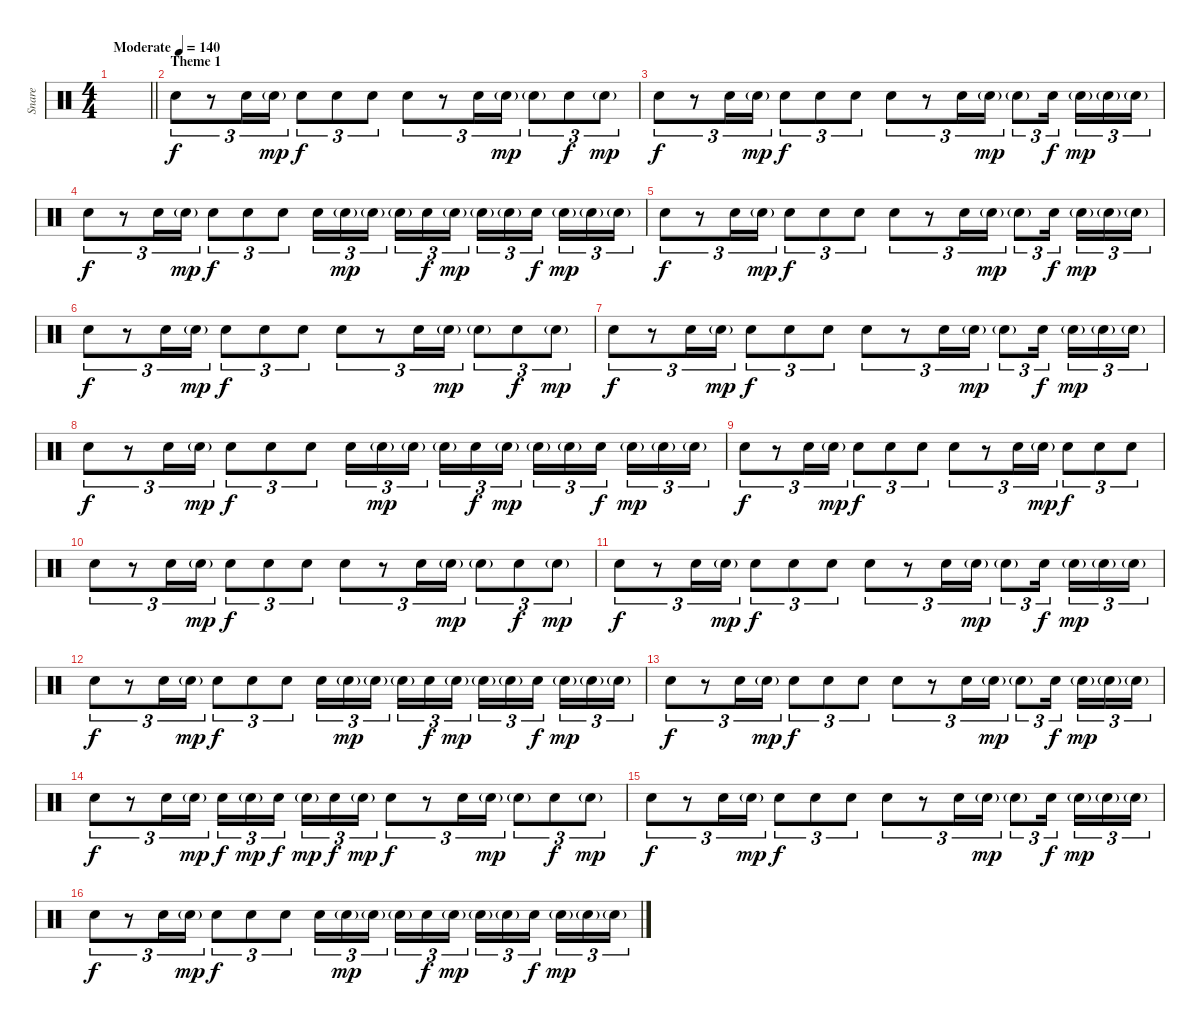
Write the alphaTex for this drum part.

\track ("Snare" "Snare") {instrument percussion}
\staff {score}
\articulation defaults
\ts (4 4)
\tempo (140 "Moderate")
\clef neutral
\barLineRight lightlight
\ks c
|
\section ("" "Theme 1")
"Electric Snare (hit)".8{tu (3 2)} r.8{tu (3 2)} "Electric Snare (hit)".16{tu (3 2)} "Electric Snare (hit)"{g}.16{tu (3 2) dy mp} "Electric Snare (hit)".8{tu (3 2) dy f} "Electric Snare (hit)".8{tu (3 2)} "Electric Snare (hit)".8{tu (3 2)} "Electric Snare (hit)".8{tu (3 2)} r.8{tu (3 2)} "Electric Snare (hit)".16{tu (3 2)} "Electric Snare (hit)"{g}.16{tu (3 2) dy mp} "Electric Snare (hit)"{g}.8{tu (3 2)} "Electric Snare (hit)".8{tu (3 2) dy f} "Electric Snare (hit)"{g}.8{tu (3 2) dy mp} |
"Electric Snare (hit)".8{tu (3 2) dy f} r.8{tu (3 2)} "Electric Snare (hit)".16{tu (3 2)} "Electric Snare (hit)"{g}.16{tu (3 2) dy mp} "Electric Snare (hit)".8{tu (3 2) dy f} "Electric Snare (hit)".8{tu (3 2)} "Electric Snare (hit)".8{tu (3 2)} "Electric Snare (hit)".8{tu (3 2)} r.8{tu (3 2)} "Electric Snare (hit)".16{tu (3 2)} "Electric Snare (hit)"{g}.16{tu (3 2) dy mp} "Electric Snare (hit)"{g}.8{tu (3 2)} "Electric Snare (hit)".16{tu (3 2) dy f beam splitsecondary} "Electric Snare (hit)"{g}.16{tu (3 2) dy mp} "Electric Snare (hit)"{g}.16{tu (3 2)} "Electric Snare (hit)"{g}.16{tu (3 2)} |
"Electric Snare (hit)".8{tu (3 2) dy f} r.8{tu (3 2)} "Electric Snare (hit)".16{tu (3 2)} "Electric Snare (hit)"{g}.16{tu (3 2) dy mp} "Electric Snare (hit)".8{tu (3 2) dy f} "Electric Snare (hit)".8{tu (3 2)} "Electric Snare (hit)".8{tu (3 2)} "Electric Snare (hit)".16{tu (3 2)} "Electric Snare (hit)"{g}.16{tu (3 2) dy mp} "Electric Snare (hit)"{g}.16{tu (3 2) beam splitsecondary} "Electric Snare (hit)"{g}.16{tu (3 2)} "Electric Snare (hit)".16{tu (3 2) dy f} "Electric Snare (hit)"{g}.16{tu (3 2) dy mp} "Electric Snare (hit)"{g}.16{tu (3 2)} "Electric Snare (hit)"{g}.16{tu (3 2)} "Electric Snare (hit)".16{tu (3 2) dy f beam splitsecondary} "Electric Snare (hit)"{g}.16{tu (3 2) dy mp} "Electric Snare (hit)"{g}.16{tu (3 2)} "Electric Snare (hit)"{g}.16{tu (3 2)} |
"Electric Snare (hit)".8{tu (3 2) dy f} r.8{tu (3 2)} "Electric Snare (hit)".16{tu (3 2)} "Electric Snare (hit)"{g}.16{tu (3 2) dy mp} "Electric Snare (hit)".8{tu (3 2) dy f} "Electric Snare (hit)".8{tu (3 2)} "Electric Snare (hit)".8{tu (3 2)} "Electric Snare (hit)".8{tu (3 2)} r.8{tu (3 2)} "Electric Snare (hit)".16{tu (3 2)} "Electric Snare (hit)"{g}.16{tu (3 2) dy mp} "Electric Snare (hit)"{g}.8{tu (3 2)} "Electric Snare (hit)".16{tu (3 2) dy f beam splitsecondary} "Electric Snare (hit)"{g}.16{tu (3 2) dy mp} "Electric Snare (hit)"{g}.16{tu (3 2)} "Electric Snare (hit)"{g}.16{tu (3 2)} |
"Electric Snare (hit)".8{tu (3 2) dy f} r.8{tu (3 2)} "Electric Snare (hit)".16{tu (3 2)} "Electric Snare (hit)"{g}.16{tu (3 2) dy mp} "Electric Snare (hit)".8{tu (3 2) dy f} "Electric Snare (hit)".8{tu (3 2)} "Electric Snare (hit)".8{tu (3 2)} "Electric Snare (hit)".8{tu (3 2)} r.8{tu (3 2)} "Electric Snare (hit)".16{tu (3 2)} "Electric Snare (hit)"{g}.16{tu (3 2) dy mp} "Electric Snare (hit)"{g}.8{tu (3 2)} "Electric Snare (hit)".8{tu (3 2) dy f} "Electric Snare (hit)"{g}.8{tu (3 2) dy mp} |
"Electric Snare (hit)".8{tu (3 2) dy f} r.8{tu (3 2)} "Electric Snare (hit)".16{tu (3 2)} "Electric Snare (hit)"{g}.16{tu (3 2) dy mp} "Electric Snare (hit)".8{tu (3 2) dy f} "Electric Snare (hit)".8{tu (3 2)} "Electric Snare (hit)".8{tu (3 2)} "Electric Snare (hit)".8{tu (3 2)} r.8{tu (3 2)} "Electric Snare (hit)".16{tu (3 2)} "Electric Snare (hit)"{g}.16{tu (3 2) dy mp} "Electric Snare (hit)"{g}.8{tu (3 2)} "Electric Snare (hit)".16{tu (3 2) dy f beam splitsecondary} "Electric Snare (hit)"{g}.16{tu (3 2) dy mp} "Electric Snare (hit)"{g}.16{tu (3 2)} "Electric Snare (hit)"{g}.16{tu (3 2)} |
"Electric Snare (hit)".8{tu (3 2) dy f} r.8{tu (3 2)} "Electric Snare (hit)".16{tu (3 2)} "Electric Snare (hit)"{g}.16{tu (3 2) dy mp} "Electric Snare (hit)".8{tu (3 2) dy f} "Electric Snare (hit)".8{tu (3 2)} "Electric Snare (hit)".8{tu (3 2)} "Electric Snare (hit)".16{tu (3 2)} "Electric Snare (hit)"{g}.16{tu (3 2) dy mp} "Electric Snare (hit)"{g}.16{tu (3 2) beam splitsecondary} "Electric Snare (hit)"{g}.16{tu (3 2)} "Electric Snare (hit)".16{tu (3 2) dy f} "Electric Snare (hit)"{g}.16{tu (3 2) dy mp} "Electric Snare (hit)"{g}.16{tu (3 2)} "Electric Snare (hit)"{g}.16{tu (3 2)} "Electric Snare (hit)".16{tu (3 2) dy f beam splitsecondary} "Electric Snare (hit)"{g}.16{tu (3 2) dy mp} "Electric Snare (hit)"{g}.16{tu (3 2)} "Electric Snare (hit)"{g}.16{tu (3 2)} |
"Electric Snare (hit)".8{tu (3 2) dy f} r.8{tu (3 2)} "Electric Snare (hit)".16{tu (3 2)} "Electric Snare (hit)"{g}.16{tu (3 2) dy mp} "Electric Snare (hit)".8{tu (3 2) dy f} "Electric Snare (hit)".8{tu (3 2)} "Electric Snare (hit)".8{tu (3 2)} "Electric Snare (hit)".8{tu (3 2)} r.8{tu (3 2)} "Electric Snare (hit)".16{tu (3 2)} "Electric Snare (hit)"{g}.16{tu (3 2) dy mp} "Electric Snare (hit)".8{tu (3 2) dy f} "Electric Snare (hit)".8{tu (3 2)} "Electric Snare (hit)".8{tu (3 2)} |
"Electric Snare (hit)".8{tu (3 2)} r.8{tu (3 2)} "Electric Snare (hit)".16{tu (3 2)} "Electric Snare (hit)"{g}.16{tu (3 2) dy mp} "Electric Snare (hit)".8{tu (3 2) dy f} "Electric Snare (hit)".8{tu (3 2)} "Electric Snare (hit)".8{tu (3 2)} "Electric Snare (hit)".8{tu (3 2)} r.8{tu (3 2)} "Electric Snare (hit)".16{tu (3 2)} "Electric Snare (hit)"{g}.16{tu (3 2) dy mp} "Electric Snare (hit)"{g}.8{tu (3 2)} "Electric Snare (hit)".8{tu (3 2) dy f} "Electric Snare (hit)"{g}.8{tu (3 2) dy mp} |
"Electric Snare (hit)".8{tu (3 2) dy f} r.8{tu (3 2)} "Electric Snare (hit)".16{tu (3 2)} "Electric Snare (hit)"{g}.16{tu (3 2) dy mp} "Electric Snare (hit)".8{tu (3 2) dy f} "Electric Snare (hit)".8{tu (3 2)} "Electric Snare (hit)".8{tu (3 2)} "Electric Snare (hit)".8{tu (3 2)} r.8{tu (3 2)} "Electric Snare (hit)".16{tu (3 2)} "Electric Snare (hit)"{g}.16{tu (3 2) dy mp} "Electric Snare (hit)"{g}.8{tu (3 2)} "Electric Snare (hit)".16{tu (3 2) dy f beam splitsecondary} "Electric Snare (hit)"{g}.16{tu (3 2) dy mp} "Electric Snare (hit)"{g}.16{tu (3 2)} "Electric Snare (hit)"{g}.16{tu (3 2)} |
"Electric Snare (hit)".8{tu (3 2) dy f} r.8{tu (3 2)} "Electric Snare (hit)".16{tu (3 2)} "Electric Snare (hit)"{g}.16{tu (3 2) dy mp} "Electric Snare (hit)".8{tu (3 2) dy f} "Electric Snare (hit)".8{tu (3 2)} "Electric Snare (hit)".8{tu (3 2)} "Electric Snare (hit)".16{tu (3 2)} "Electric Snare (hit)"{g}.16{tu (3 2) dy mp} "Electric Snare (hit)"{g}.16{tu (3 2) beam splitsecondary} "Electric Snare (hit)"{g}.16{tu (3 2)} "Electric Snare (hit)".16{tu (3 2) dy f} "Electric Snare (hit)"{g}.16{tu (3 2) dy mp} "Electric Snare (hit)"{g}.16{tu (3 2)} "Electric Snare (hit)"{g}.16{tu (3 2)} "Electric Snare (hit)".16{tu (3 2) dy f beam splitsecondary} "Electric Snare (hit)"{g}.16{tu (3 2) dy mp} "Electric Snare (hit)"{g}.16{tu (3 2)} "Electric Snare (hit)"{g}.16{tu (3 2)} |
"Electric Snare (hit)".8{tu (3 2) dy f} r.8{tu (3 2)} "Electric Snare (hit)".16{tu (3 2)} "Electric Snare (hit)"{g}.16{tu (3 2) dy mp} "Electric Snare (hit)".8{tu (3 2) dy f} "Electric Snare (hit)".8{tu (3 2)} "Electric Snare (hit)".8{tu (3 2)} "Electric Snare (hit)".8{tu (3 2)} r.8{tu (3 2)} "Electric Snare (hit)".16{tu (3 2)} "Electric Snare (hit)"{g}.16{tu (3 2) dy mp} "Electric Snare (hit)"{g}.8{tu (3 2)} "Electric Snare (hit)".16{tu (3 2) dy f beam splitsecondary} "Electric Snare (hit)"{g}.16{tu (3 2) dy mp} "Electric Snare (hit)"{g}.16{tu (3 2)} "Electric Snare (hit)"{g}.16{tu (3 2)} |
"Electric Snare (hit)".8{tu (3 2) dy f} r.8{tu (3 2)} "Electric Snare (hit)".16{tu (3 2)} "Electric Snare (hit)"{g}.16{tu (3 2) dy mp} "Electric Snare (hit)".16{tu (3 2) dy f} "Electric Snare (hit)"{g}.16{tu (3 2) dy mp} "Electric Snare (hit)".16{tu (3 2) dy f beam splitsecondary} "Electric Snare (hit)"{g}.16{tu (3 2) dy mp} "Electric Snare (hit)".16{tu (3 2) dy f} "Electric Snare (hit)"{g}.16{tu (3 2) dy mp} "Electric Snare (hit)".8{tu (3 2) dy f} r.8{tu (3 2)} "Electric Snare (hit)".16{tu (3 2)} "Electric Snare (hit)"{g}.16{tu (3 2) dy mp} "Electric Snare (hit)"{g}.8{tu (3 2)} "Electric Snare (hit)".8{tu (3 2) dy f} "Electric Snare (hit)"{g}.8{tu (3 2) dy mp} |
"Electric Snare (hit)".8{tu (3 2) dy f} r.8{tu (3 2)} "Electric Snare (hit)".16{tu (3 2)} "Electric Snare (hit)"{g}.16{tu (3 2) dy mp} "Electric Snare (hit)".8{tu (3 2) dy f} "Electric Snare (hit)".8{tu (3 2)} "Electric Snare (hit)".8{tu (3 2)} "Electric Snare (hit)".8{tu (3 2)} r.8{tu (3 2)} "Electric Snare (hit)".16{tu (3 2)} "Electric Snare (hit)"{g}.16{tu (3 2) dy mp} "Electric Snare (hit)"{g}.8{tu (3 2)} "Electric Snare (hit)".16{tu (3 2) dy f beam splitsecondary} "Electric Snare (hit)"{g}.16{tu (3 2) dy mp} "Electric Snare (hit)"{g}.16{tu (3 2)} "Electric Snare (hit)"{g}.16{tu (3 2)} |
"Electric Snare (hit)".8{tu (3 2) dy f} r.8{tu (3 2)} "Electric Snare (hit)".16{tu (3 2)} "Electric Snare (hit)"{g}.16{tu (3 2) dy mp} "Electric Snare (hit)".8{tu (3 2) dy f} "Electric Snare (hit)".8{tu (3 2)} "Electric Snare (hit)".8{tu (3 2)} "Electric Snare (hit)".16{tu (3 2)} "Electric Snare (hit)"{g}.16{tu (3 2) dy mp} "Electric Snare (hit)"{g}.16{tu (3 2) beam splitsecondary} "Electric Snare (hit)"{g}.16{tu (3 2)} "Electric Snare (hit)".16{tu (3 2) dy f} "Electric Snare (hit)"{g}.16{tu (3 2) dy mp} "Electric Snare (hit)"{g}.16{tu (3 2)} "Electric Snare (hit)"{g}.16{tu (3 2)} "Electric Snare (hit)".16{tu (3 2) dy f beam splitsecondary} "Electric Snare (hit)"{g}.16{tu (3 2) dy mp} "Electric Snare (hit)"{g}.16{tu (3 2)} "Electric Snare (hit)"{g}.16{tu (3 2)}
